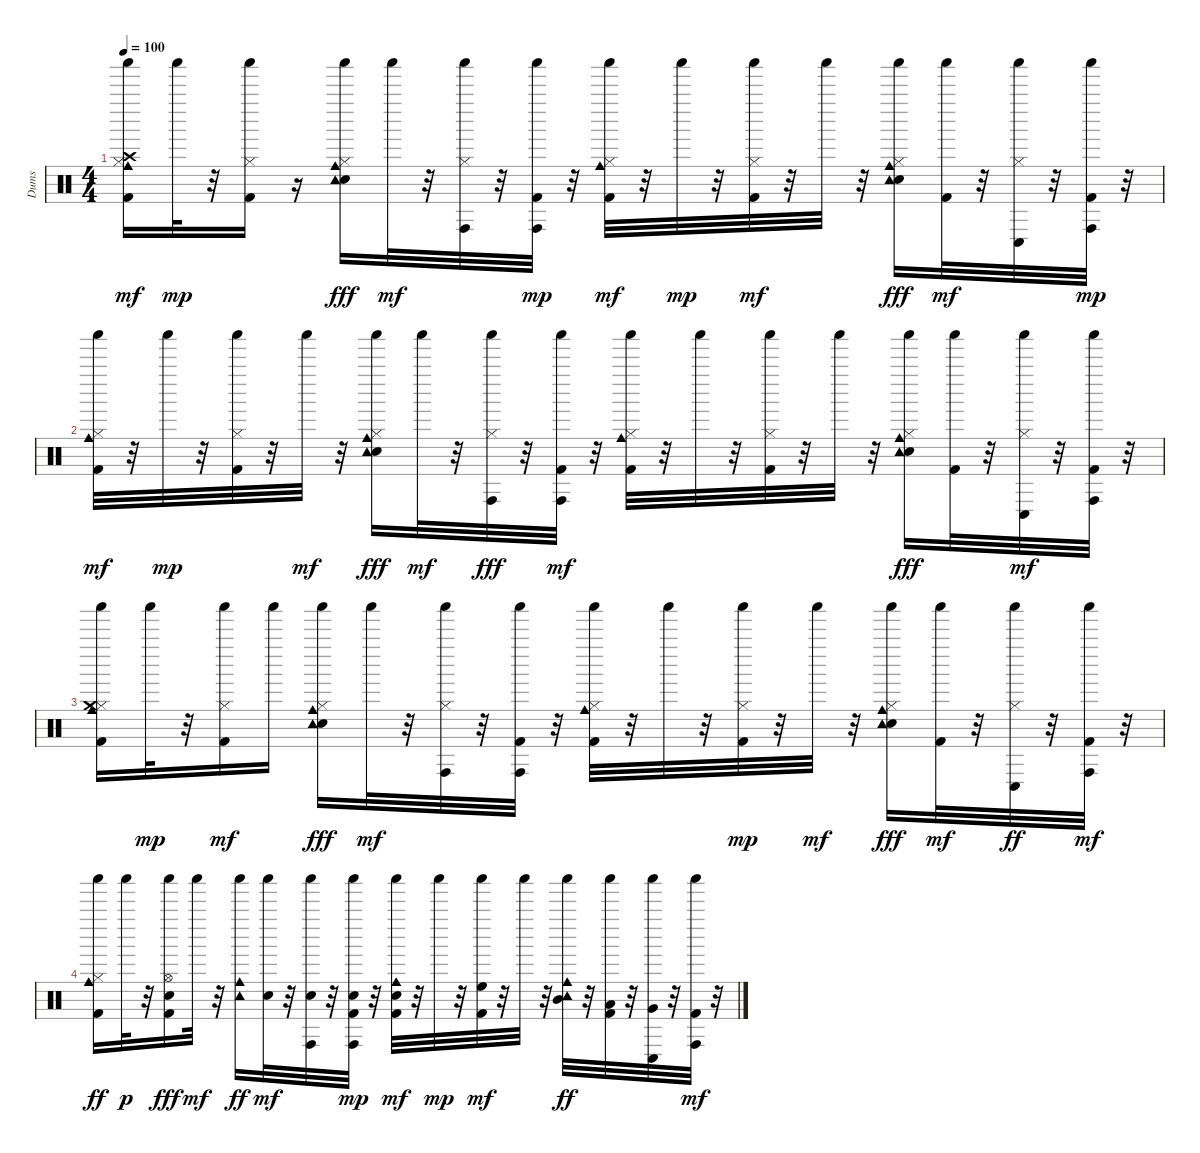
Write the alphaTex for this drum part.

\track ("Dums" "Dums") {instrument percussion}
\staff {score}
\articulation defaults
\ts (4 4)
\tempo 100
\clef neutral
\ks c
("Kick (hit) 2" "Hi-Hat (closed)" "Cowbell medium (hit)" "Crash high (hit)" "Shaker (hit)").16{dy mf} "Shaker (hit)".32{dy mp} r.32 ("Kick (hit) 2" "Hi-Hat (closed)" "Shaker (hit)").16 r.16 ("Electric Snare (hit)" "Hi-Hat (closed)" "Cowbell medium (hit)" "Shaker (hit)" "Tambourine (hit)").16{dy fff} "Shaker (hit)".32{dy mf} r.32 ("Hi-Hat (closed)" "Conga high (hit)" "Shaker (hit)").32 r.32 ("Kick (hit) 2" "Conga high (hit)" "Shaker (hit)").32{dy mp} r.32 ("Kick (hit) 2" "Hi-Hat (closed)" "Cowbell medium (hit)" "Shaker (hit)").32{dy mf} r.32 "Shaker (hit)".32{dy mp} r.32 ("Kick (hit) 2" "Hi-Hat (closed)" "Shaker (hit)").32{dy mf} r.32 "Shaker (hit)".32 r.32 ("Electric Snare (hit)" "Hi-Hat (closed)" "Cowbell medium (hit)" "Shaker (hit)" "Tambourine (hit)").16{dy fff} ("Kick (hit) 2" "Shaker (hit)").32{dy mf} r.32 ("Hi-Hat (closed)" "Conga low (hit)" "Shaker (hit)").32 r.32 ("Kick (hit) 2" "Conga high (hit)" "Shaker (hit)").32{dy mp} r.32 |
("Kick (hit) 2" "Hi-Hat (closed)" "Cowbell medium (hit)" "Shaker (hit)").32{dy mf} r.32 "Shaker (hit)".32{dy mp} r.32 ("Kick (hit) 2" "Hi-Hat (closed)" "Shaker (hit)").32 r.32 "Shaker (hit)".32{dy mf} r.32 ("Electric Snare (hit)" "Hi-Hat (closed)" "Cowbell medium (hit)" "Shaker (hit)" "Tambourine (hit)").16{dy fff} "Shaker (hit)".32{dy mf} r.32 ("Hi-Hat (closed)" "Conga high (hit)" "Shaker (hit)").32{dy fff} r.32 ("Kick (hit) 2" "Conga high (hit)" "Shaker (hit)").32{dy mf} r.32 ("Kick (hit) 2" "Hi-Hat (closed)" "Cowbell medium (hit)" "Shaker (hit)").32 r.32 "Shaker (hit)".32 r.32 ("Kick (hit) 2" "Hi-Hat (closed)" "Shaker (hit)").32 r.32 "Shaker (hit)".32 r.32 ("Electric Snare (hit)" "Hi-Hat (closed)" "Cowbell medium (hit)" "Shaker (hit)" "Tambourine (hit)").16{dy fff} ("Kick (hit) 2" "Shaker (hit)").32 r.32 ("Hi-Hat (closed)" "Conga low (hit)" "Shaker (hit)").32{dy mf} r.32 ("Kick (hit) 2" "Conga high (hit)" "Shaker (hit)").32 r.32 |
("Kick (hit) 2" "Hi-Hat (closed)" "Cowbell medium (hit)" "Crash medium (hit)" "Shaker (hit)").16 "Shaker (hit)".32{dy mp} r.32 ("Kick (hit) 2" "Hi-Hat (closed)" "Shaker (hit)").16{dy mf} "Shaker (hit)".16 ("Electric Snare (hit)" "Hi-Hat (closed)" "Cowbell medium (hit)" "Shaker (hit)" "Tambourine (hit)").16{dy fff} "Shaker (hit)".32{dy mf} r.32 ("Hi-Hat (closed)" "Conga high (hit)" "Shaker (hit)").32 r.32 ("Kick (hit) 2" "Conga high (hit)" "Shaker (hit)").32 r.32 ("Kick (hit) 2" "Hi-Hat (closed)" "Cowbell medium (hit)" "Shaker (hit)").32 r.32 "Shaker (hit)".32 r.32 ("Kick (hit) 2" "Hi-Hat (closed)" "Shaker (hit)").32{dy mp} r.32 "Shaker (hit)".32{dy mf} r.32 ("Electric Snare (hit)" "Hi-Hat (closed)" "Cowbell medium (hit)" "Shaker (hit)" "Tambourine (hit)").16{dy fff} ("Kick (hit) 2" "Shaker (hit)").32{dy mf} r.32 ("Hi-Hat (closed)" "Conga low (hit)" "Shaker (hit)").32{dy ff} r.32 ("Kick (hit) 2" "Conga high (hit)" "Shaker (hit)").32{dy mf} r.32 |
("Kick (hit) 2" "Cowbell medium (hit)" "Shaker (hit)" "Hi-Hat (closed)").16{dy ff} "Shaker (hit)".32{dy p} r.32 ("Kick (hit) 2" "Electric Snare (hit)" "Shaker (hit)" "Hi-Hat (open)").16{dy fff} "Shaker (hit)".32{dy mf} r.32 ("Cowbell medium (hit)" "Tambourine (hit)" "Shaker (hit)").16{dy ff} ("Electric Snare (hit)" "Shaker (hit)").32{dy mf} r.32 ("Electric Snare (hit)" "Conga high (hit)" "Shaker (hit)").32 r.32 ("Kick (hit) 2" "Electric Snare (hit)" "Conga high (hit)" "Shaker (hit)").32{dy mp} r.32 ("Kick (hit) 2" "Electric Snare (hit)" "Cowbell medium (hit)" "Shaker (hit)").32{dy mf} r.32 "Shaker (hit)".32{dy mp} r.32 ("Kick (hit) 2" "High Floor Tom (hit)" "Shaker (hit)").32{dy mf} r.32 "Shaker (hit)".32 r.32 ("Mid Tom (hit)" "Cowbell medium (hit)" "Tambourine (hit)" "Shaker (hit)").32{dy ff} r.32 ("Kick (hit) 2" "Low Tom (hit)" "Shaker (hit)").32 r.32 ("Very Low Tom (hit)" "Conga low (hit)" "Shaker (hit)").32 r.32 ("Kick (hit) 2" "Conga high (hit)" "Shaker (hit)").32{dy mf} r.32
